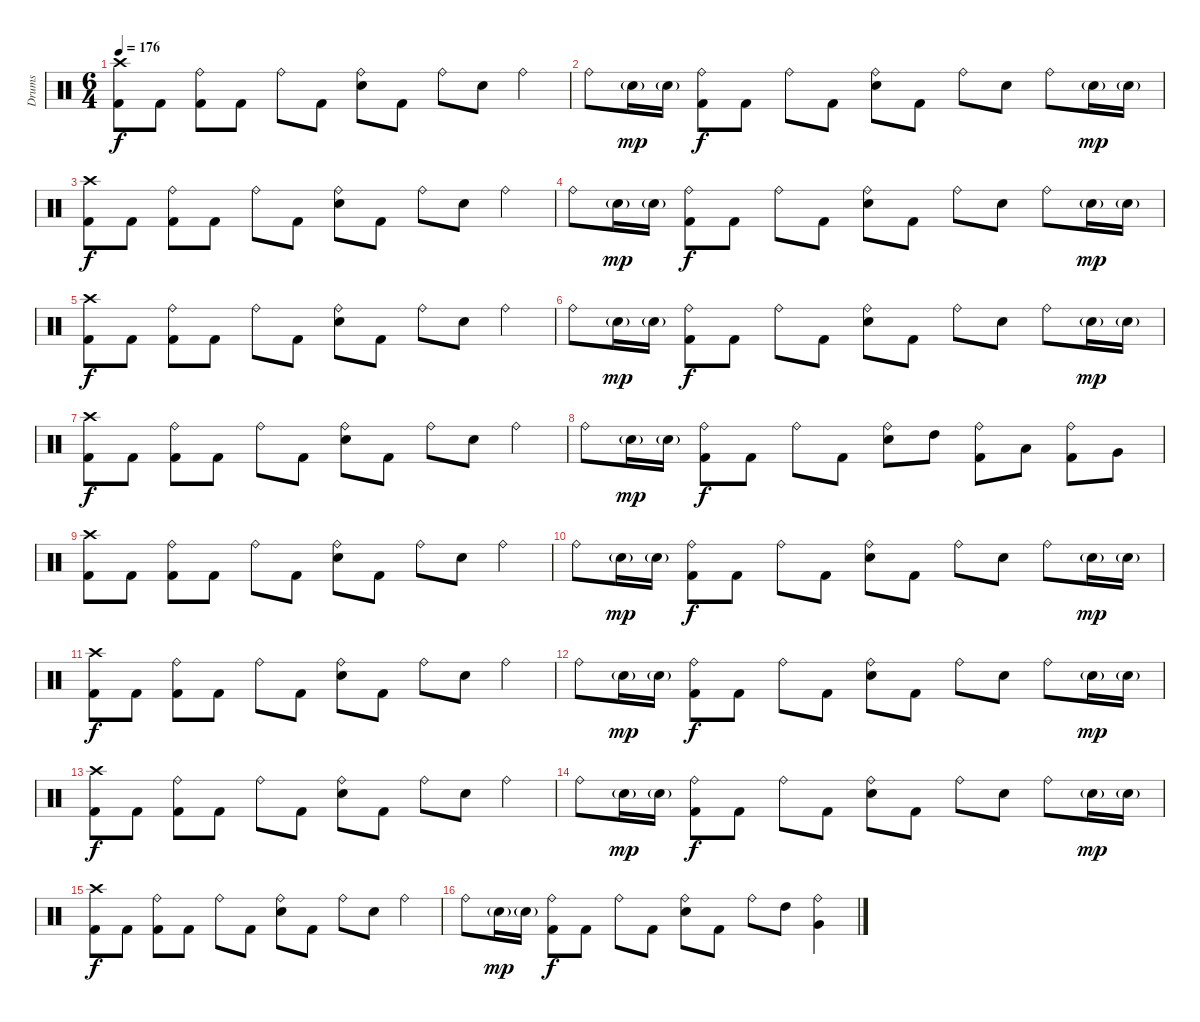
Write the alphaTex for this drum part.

\track ("Drums" "Drums") {instrument percussion}
\staff {score}
\articulation defaults
\ts (6 4)
\tempo 176
\clef neutral
\ks c
("Crash high (hit)" "Kick (hit) 2").8{dy f} "Kick (hit) 2".8 ("Ride (bell)" "Kick (hit) 2").8 "Kick (hit) 2".8 "Ride (bell)".8 "Kick (hit) 2".8 ("Ride (bell)" "Snare (hit) 2").8 "Kick (hit) 2".8 "Ride (bell)".8 "Snare (hit) 2".8 "Ride (bell)".4 |
"Ride (bell)".8 "Snare (hit) 2"{g}.16{dy mp} "Snare (hit) 2"{g}.16 ("Ride (bell)" "Kick (hit) 2").8{dy f} "Kick (hit) 2".8 "Ride (bell)".8 "Kick (hit) 2".8 ("Ride (bell)" "Snare (hit) 2").8 "Kick (hit) 2".8 "Ride (bell)".8 "Snare (hit) 2".8 "Ride (bell)".8 "Snare (hit) 2"{g}.16{dy mp} "Snare (hit) 2"{g}.16 |
("Crash high (hit)" "Kick (hit) 2").8{dy f} "Kick (hit) 2".8 ("Ride (bell)" "Kick (hit) 2").8 "Kick (hit) 2".8 "Ride (bell)".8 "Kick (hit) 2".8 ("Ride (bell)" "Snare (hit) 2").8 "Kick (hit) 2".8 "Ride (bell)".8 "Snare (hit) 2".8 "Ride (bell)".4 |
"Ride (bell)".8 "Snare (hit) 2"{g}.16{dy mp} "Snare (hit) 2"{g}.16 ("Ride (bell)" "Kick (hit) 2").8{dy f} "Kick (hit) 2".8 "Ride (bell)".8 "Kick (hit) 2".8 ("Ride (bell)" "Snare (hit) 2").8 "Kick (hit) 2".8 "Ride (bell)".8 "Snare (hit) 2".8 "Ride (bell)".8 "Snare (hit) 2"{g}.16{dy mp} "Snare (hit) 2"{g}.16 |
("Crash high (hit)" "Kick (hit) 2").8{dy f} "Kick (hit) 2".8 ("Ride (bell)" "Kick (hit) 2").8 "Kick (hit) 2".8 "Ride (bell)".8 "Kick (hit) 2".8 ("Ride (bell)" "Snare (hit) 2").8 "Kick (hit) 2".8 "Ride (bell)".8 "Snare (hit) 2".8 "Ride (bell)".4 |
"Ride (bell)".8 "Snare (hit) 2"{g}.16{dy mp} "Snare (hit) 2"{g}.16 ("Ride (bell)" "Kick (hit) 2").8{dy f} "Kick (hit) 2".8 "Ride (bell)".8 "Kick (hit) 2".8 ("Ride (bell)" "Snare (hit) 2").8 "Kick (hit) 2".8 "Ride (bell)".8 "Snare (hit) 2".8 "Ride (bell)".8 "Snare (hit) 2"{g}.16{dy mp} "Snare (hit) 2"{g}.16 |
("Crash high (hit)" "Kick (hit) 2").8{dy f} "Kick (hit) 2".8 ("Ride (bell)" "Kick (hit) 2").8 "Kick (hit) 2".8 "Ride (bell)".8 "Kick (hit) 2".8 ("Ride (bell)" "Snare (hit) 2").8 "Kick (hit) 2".8 "Ride (bell)".8 "Snare (hit) 2".8 "Ride (bell)".4 |
"Ride (bell)".8 "Snare (hit) 2"{g}.16{dy mp} "Snare (hit) 2"{g}.16 ("Ride (bell)" "Kick (hit) 2").8{dy f} "Kick (hit) 2".8 "Ride (bell)".8 "Kick (hit) 2".8 ("Ride (bell)" "Snare (hit) 2").8 "High Tom (hit)".8 ("Ride (bell)" "Kick (hit) 2").8 "Low Tom (hit)".8 ("Ride (bell)" "Kick (hit) 2").8 "Very Low Tom (hit)".8 |
("Crash high (hit)" "Kick (hit) 2").8 "Kick (hit) 2".8 ("Ride (bell)" "Kick (hit) 2").8 "Kick (hit) 2".8 "Ride (bell)".8 "Kick (hit) 2".8 ("Ride (bell)" "Snare (hit) 2").8 "Kick (hit) 2".8 "Ride (bell)".8 "Snare (hit) 2".8 "Ride (bell)".4 |
"Ride (bell)".8 "Snare (hit) 2"{g}.16{dy mp} "Snare (hit) 2"{g}.16 ("Ride (bell)" "Kick (hit) 2").8{dy f} "Kick (hit) 2".8 "Ride (bell)".8 "Kick (hit) 2".8 ("Ride (bell)" "Snare (hit) 2").8 "Kick (hit) 2".8 "Ride (bell)".8 "Snare (hit) 2".8 "Ride (bell)".8 "Snare (hit) 2"{g}.16{dy mp} "Snare (hit) 2"{g}.16 |
("Crash high (hit)" "Kick (hit) 2").8{dy f} "Kick (hit) 2".8 ("Ride (bell)" "Kick (hit) 2").8 "Kick (hit) 2".8 "Ride (bell)".8 "Kick (hit) 2".8 ("Ride (bell)" "Snare (hit) 2").8 "Kick (hit) 2".8 "Ride (bell)".8 "Snare (hit) 2".8 "Ride (bell)".4 |
"Ride (bell)".8 "Snare (hit) 2"{g}.16{dy mp} "Snare (hit) 2"{g}.16 ("Ride (bell)" "Kick (hit) 2").8{dy f} "Kick (hit) 2".8 "Ride (bell)".8 "Kick (hit) 2".8 ("Ride (bell)" "Snare (hit) 2").8 "Kick (hit) 2".8 "Ride (bell)".8 "Snare (hit) 2".8 "Ride (bell)".8 "Snare (hit) 2"{g}.16{dy mp} "Snare (hit) 2"{g}.16 |
("Crash high (hit)" "Kick (hit) 2").8{dy f} "Kick (hit) 2".8 ("Ride (bell)" "Kick (hit) 2").8 "Kick (hit) 2".8 "Ride (bell)".8 "Kick (hit) 2".8 ("Ride (bell)" "Snare (hit) 2").8 "Kick (hit) 2".8 "Ride (bell)".8 "Snare (hit) 2".8 "Ride (bell)".4 |
"Ride (bell)".8 "Snare (hit) 2"{g}.16{dy mp} "Snare (hit) 2"{g}.16 ("Ride (bell)" "Kick (hit) 2").8{dy f} "Kick (hit) 2".8 "Ride (bell)".8 "Kick (hit) 2".8 ("Ride (bell)" "Snare (hit) 2").8 "Kick (hit) 2".8 "Ride (bell)".8 "Snare (hit) 2".8 "Ride (bell)".8 "Snare (hit) 2"{g}.16{dy mp} "Snare (hit) 2"{g}.16 |
("Crash high (hit)" "Kick (hit) 2").8{dy f} "Kick (hit) 2".8 ("Ride (bell)" "Kick (hit) 2").8 "Kick (hit) 2".8 "Ride (bell)".8 "Kick (hit) 2".8 ("Ride (bell)" "Snare (hit) 2").8 "Kick (hit) 2".8 "Ride (bell)".8 "Snare (hit) 2".8 "Ride (bell)".4 |
"Ride (bell)".8 "Snare (hit) 2"{g}.16{dy mp} "Snare (hit) 2"{g}.16 ("Ride (bell)" "Kick (hit) 2").8{dy f} "Kick (hit) 2".8 "Ride (bell)".8 "Kick (hit) 2".8 ("Ride (bell)" "Snare (hit) 2").8 "Kick (hit) 2".8 "Ride (bell)".8 "High Tom (hit)".8 ("Ride (bell)" "Very Low Tom (hit)").4
